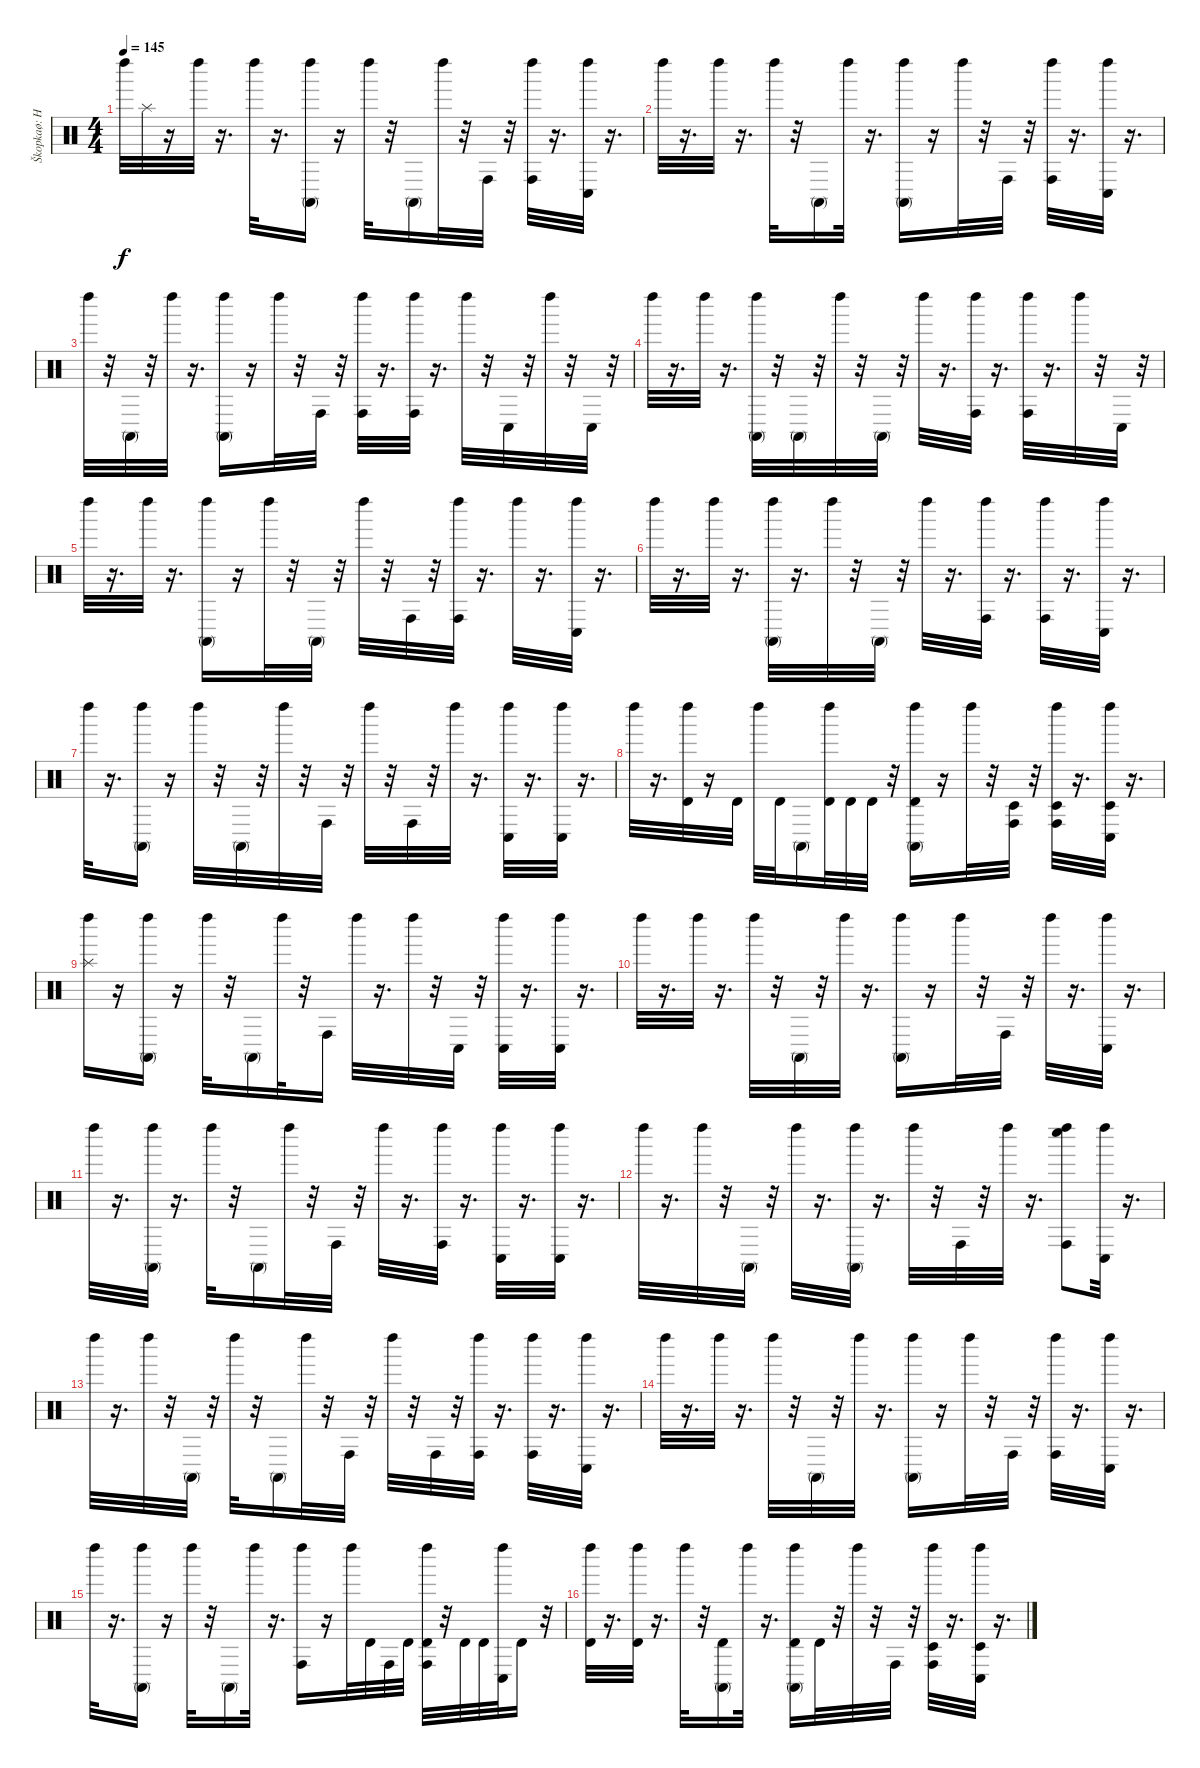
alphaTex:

\track ("Škopkaø: Hurvajs" "Škopkaø: H") {instrument percussion}
\staff {score}
\articulation defaults
\ts (4 4)
\tempo 145
\clef neutral
\ks c "Left Maraca (hit)".32{dy f} "Splash (hit)".32
r.16 "Left Maraca (hit)".32 r.16{d} "Left Maraca (hit)".32 r.16{d} ("Conga high (mute)" "Left Maraca (hit)").16 r.16 "Left Maraca (hit)".32 r.32 "Conga high (mute)".16 "Left Maraca (hit)".32 r.32 "Conga high (hit)".32 r.32 ("Conga high (hit)" "Left Maraca (hit)").32 r.16{d} ("Conga low (hit)" "Left Maraca (hit)").32 r.16{d} |
"Left Maraca (hit)".32 r.16{d} "Left Maraca (hit)".32 r.16{d} "Left Maraca (hit)".32 r.32 "Conga high (mute)".16 "Left Maraca (hit)".32 r.16{d} ("Conga high (mute)" "Left Maraca (hit)").16 r.16 "Left Maraca (hit)".32 r.32 "Conga high (hit)".32 r.32 ("Conga high (hit)" "Left Maraca (hit)").32 r.16{d} ("Conga low (hit)" "Left Maraca (hit)").32 r.16{d} |
"Left Maraca (hit)".32 r.32 "Conga high (mute)".32 r.32 "Left Maraca (hit)".32 r.16{d} ("Conga high (mute)" "Left Maraca (hit)").16 r.16 "Left Maraca (hit)".32 r.32 "Conga high (hit)".32 r.32 ("Conga high (hit)" "Left Maraca (hit)").32 r.16{d} ("Conga high (hit)" "Left Maraca (hit)").32 r.16{d} "Left Maraca (hit)".32 r.32 "Conga low (hit)".32 r.32 "Left Maraca (hit)".32 r.32 "Conga low (hit)".32 r.32 |
"Left Maraca (hit)".32 r.16{d} "Left Maraca (hit)".32 r.16{d} ("Conga high (mute)" "Left Maraca (hit)").32 r.32 "Conga high (mute)".32 r.32 "Left Maraca (hit)".32 r.32 "Conga high (mute)".32 r.32 "Left Maraca (hit)".32 r.16{d} ("Conga high (hit)" "Left Maraca (hit)").32 r.16{d} ("Conga high (hit)" "Left Maraca (hit)").32 r.16{d} "Left Maraca (hit)".32 r.32 "Conga low (hit)".32 r.32 |
"Left Maraca (hit)".32 r.16{d} "Left Maraca (hit)".32 r.16{d} ("Conga high (mute)" "Left Maraca (hit)").16 r.16 "Left Maraca (hit)".32 r.32 "Conga high (mute)".32 r.32 "Left Maraca (hit)".32 r.32 "Conga high (hit)".32 r.32 ("Conga high (hit)" "Left Maraca (hit)").32 r.16{d} "Left Maraca (hit)".32 r.16{d} ("Conga low (hit)" "Left Maraca (hit)").32 r.16{d} |
"Left Maraca (hit)".32 r.16{d} "Left Maraca (hit)".32 r.16{d} ("Conga high (mute)" "Left Maraca (hit)").32 r.16{d} "Left Maraca (hit)".32 r.32 "Conga high (mute)".32 r.32 "Left Maraca (hit)".32 r.16{d} ("Conga high (hit)" "Left Maraca (hit)").32 r.16{d} ("Conga high (hit)" "Left Maraca (hit)").32 r.16{d} ("Conga low (hit)" "Left Maraca (hit)").32 r.16{d} |
"Left Maraca (hit)".32 r.16{d} ("Conga high (mute)" "Left Maraca (hit)").16 r.16 "Left Maraca (hit)".32 r.32 "Conga high (mute)".32 r.32 "Left Maraca (hit)".32 r.32 "Conga high (hit)".32 r.32 "Left Maraca (hit)".32 r.32 "Conga high (hit)".32 r.32 "Left Maraca (hit)".32 r.16{d} ("Conga low (hit)" "Left Maraca (hit)").32 r.16{d} ("Conga low (hit)" "Left Maraca (hit)").32 r.16{d} |
"Left Maraca (hit)".32 r.16{d} ("Left Maraca (hit)" "Timbale high (hit)").32 r.16 "Timbale high (hit)".32 "Left Maraca (hit)".32 "Timbale high (hit)".32 "Conga high (mute)".16 ("Timbale high (hit)" "Left Maraca (hit)").32 "Timbale high (hit)".32 "Timbale high (hit)".32 r.32 ("Conga high (mute)" "Left Maraca (hit)" "Timbale high (hit)").16 r.16 "Left Maraca (hit)".32 r.32 ("Timbale low (hit)" "Conga high (hit)").32 r.32 ("Timbale low (hit)" "Conga high (hit)" "Left Maraca (hit)").32 r.16{d} ("Conga low (hit)" "Left Maraca (hit)" "Timbale low (hit)").32 r.16{d} |
("Left Maraca (hit)" "Splash (hit)").16 r.16 ("Conga high (mute)" "Left Maraca (hit)").16 r.16 "Left Maraca (hit)".32 r.32 "Conga high (mute)".16 "Left Maraca (hit)".32 r.32 "Conga high (hit)".16 "Left Maraca (hit)".32 r.16{d} "Left Maraca (hit)".32 r.32 "Conga low (hit)".32 r.32 ("Conga low (hit)" "Left Maraca (hit)").32 r.16{d} ("Conga low (hit)" "Left Maraca (hit)").32 r.16{d} |
"Left Maraca (hit)".32 r.16{d} "Left Maraca (hit)".32 r.16{d} "Left Maraca (hit)".32 r.32 "Conga high (mute)".32 r.32 "Left Maraca (hit)".32 r.16{d} ("Conga high (mute)" "Left Maraca (hit)").16 r.16 "Left Maraca (hit)".32 r.32 "Conga high (hit)".32 r.32 "Left Maraca (hit)".32 r.16{d} ("Conga low (hit)" "Left Maraca (hit)").32 r.16{d} |
"Left Maraca (hit)".32 r.16{d} ("Conga high (mute)" "Left Maraca (hit)").32 r.16{d} "Left Maraca (hit)".32 r.32 "Conga high (mute)".16 "Left Maraca (hit)".32 r.32 "Conga high (hit)".32 r.32 "Left Maraca (hit)".32 r.16{d} ("Conga high (hit)" "Left Maraca (hit)").32 r.16{d} ("Conga low (hit)" "Left Maraca (hit)").32 r.16{d} ("Conga low (hit)" "Left Maraca (hit)").32 r.16{d} |
"Left Maraca (hit)".32 r.16{d} "Left Maraca (hit)".32 r.32 "Conga high (mute)".32 r.32 "Left Maraca (hit)".32 r.16{d} ("Conga high (mute)" "Left Maraca (hit)").32 r.16{d} "Left Maraca (hit)".32 r.32 "Conga high (hit)".32 r.32 "Left Maraca (hit)".32 r.16{d} ("Whistle low (hit)" "Conga high (hit)" "Left Maraca (hit)").8 ("Conga low (hit)" "Left Maraca (hit)").32 r.16{d} |
"Left Maraca (hit)".32 r.16{d} "Left Maraca (hit)".32 r.32 "Conga high (mute)".32 r.32 "Left Maraca (hit)".32 r.32 "Conga high (mute)".16 "Left Maraca (hit)".32 r.32 "Conga high (hit)".32 r.32 "Left Maraca (hit)".32 r.32 "Conga high (hit)".32 r.32 ("Conga high (hit)" "Left Maraca (hit)").32 r.16{d} ("Conga high (hit)" "Left Maraca (hit)").32 r.16{d} ("Conga low (hit)" "Left Maraca (hit)").32 r.16{d} |
"Left Maraca (hit)".32 r.16{d} "Left Maraca (hit)".32 r.16{d} "Left Maraca (hit)".32 r.32 "Conga high (mute)".32 r.32 "Left Maraca (hit)".32 r.16{d} ("Conga high (mute)" "Left Maraca (hit)").16 r.16 "Left Maraca (hit)".32 r.32 "Conga high (hit)".32 r.32 ("Conga high (hit)" "Left Maraca (hit)").32 r.16{d} ("Conga low (hit)" "Left Maraca (hit)").32 r.16{d} |
"Left Maraca (hit)".32 r.16{d} ("Conga high (mute)" "Left Maraca (hit)").16 r.16 "Left Maraca (hit)".32 r.32 "Conga high (mute)".16 "Left Maraca (hit)".32 r.16{d} ("Conga high (hit)" "Left Maraca (hit)").16 r.16 "Left Maraca (hit)".32 "Timbale high (hit)".32 "Conga high (hit)".32 "Timbale high (hit)".32 ("Timbale high (hit)" "Conga high (hit)" "Left Maraca (hit)").32 r.32 "Timbale high (hit)".32 "Timbale high (hit)".32 ("Conga low (hit)" "Left Maraca (hit)").32 "Timbale high (hit)".16 r.32 |
("Left Maraca (hit)" "Timbale high (hit)").32 r.16{d} ("Left Maraca (hit)" "Timbale high (hit)").32 r.16{d} "Left Maraca (hit)".32 r.32 ("Conga high (mute)" "Timbale high (hit)").16 "Left Maraca (hit)".32 r.16{d} ("Timbale high (hit)" "Conga high (mute)" "Left Maraca (hit)").16 "Timbale high (hit)".32 r.32 "Left Maraca (hit)".32 r.32 "Conga high (hit)".32 r.32 ("Conga high (hit)" "Left Maraca (hit)" "Timbale low (hit)").32 r.16{d} ("Conga low (hit)" "Left Maraca (hit)" "Timbale low (hit)").32 r.16{d}
